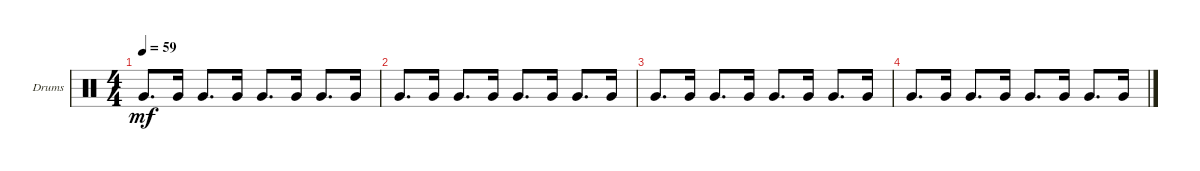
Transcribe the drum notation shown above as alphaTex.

\defaultSystemsLayout 4
\bracketExtendMode groupsimilarinstruments
\firstSystemTrackNameOrientation horizontal
\otherSystemsTrackNameOrientation horizontal
\track ("Drumkit" "Drums") {instrument percussion}
\staff {score}
\articulation defaults
\ts (4 4)
\tempo 59
\clef neutral
\ks c "Very Low Tom (hit)".8{d dy mf} "Very Low Tom (hit)".16 "Very Low Tom (hit)".8{d} "Very Low Tom (hit)".16 "Very Low Tom (hit)".8{d} "Very Low Tom (hit)".16 "Very Low Tom (hit)".8{d} "Very Low Tom (hit)".16
|
"Very Low Tom (hit)".8{d} "Very Low Tom (hit)".16 "Very Low Tom (hit)".8{d} "Very Low Tom (hit)".16 "Very Low Tom (hit)".8{d} "Very Low Tom (hit)".16 "Very Low Tom (hit)".8{d} "Very Low Tom (hit)".16 |
"Very Low Tom (hit)".8{d} "Very Low Tom (hit)".16 "Very Low Tom (hit)".8{d} "Very Low Tom (hit)".16 "Very Low Tom (hit)".8{d} "Very Low Tom (hit)".16 "Very Low Tom (hit)".8{d} "Very Low Tom (hit)".16 |
"Very Low Tom (hit)".8{d} "Very Low Tom (hit)".16 "Very Low Tom (hit)".8{d} "Very Low Tom (hit)".16 "Very Low Tom (hit)".8{d} "Very Low Tom (hit)".16 "Very Low Tom (hit)".8{d} "Very Low Tom (hit)".16
